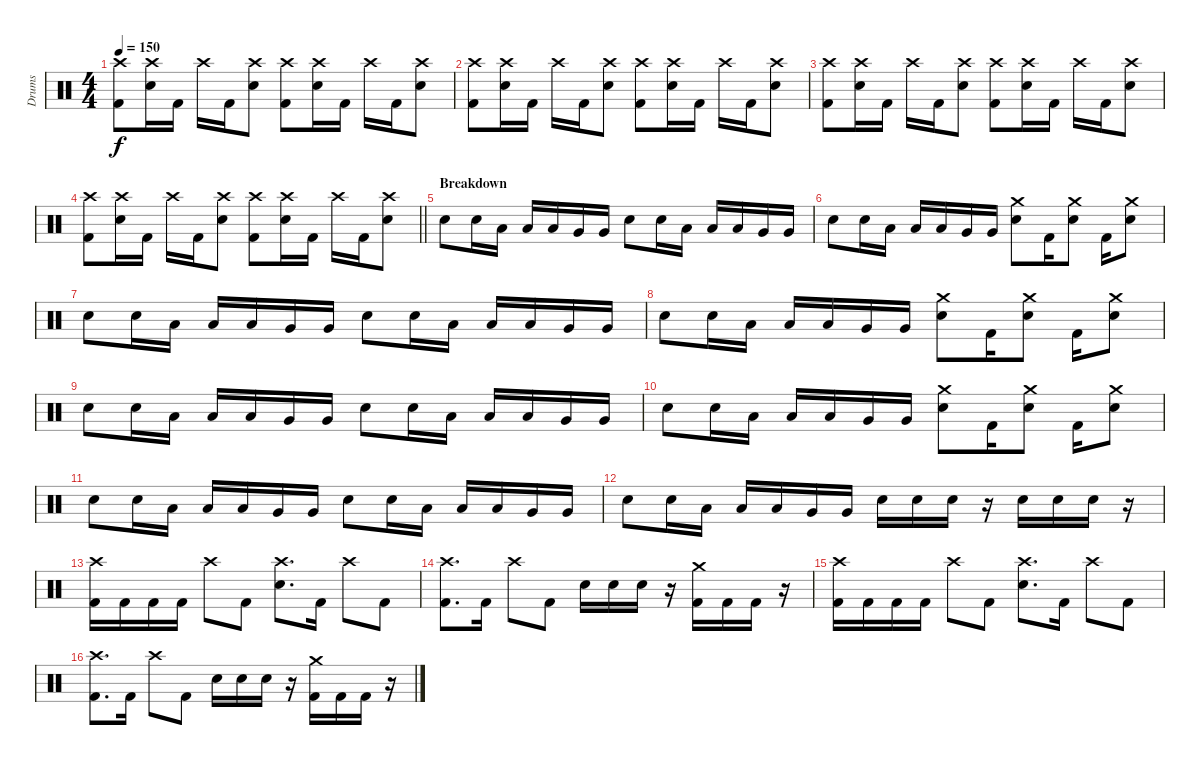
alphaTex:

\track ("Drums" "Drums") {instrument percussion}
\staff {score}
\articulation defaults
\ts (4 4)
\tempo 150
\clef neutral
\ks c
("Crash high (hit)" "Kick (hit) 2").8{dy f} ("Crash high (hit)" "Electric Snare (hit)").16 "Kick (hit) 2".16 "Crash high (hit)".16 "Kick (hit) 2".16 ("Crash high (hit)" "Electric Snare (hit)").8 ("Crash high (hit)" "Kick (hit) 2").8 ("Crash high (hit)" "Electric Snare (hit)").16 "Kick (hit) 2".16 "Crash high (hit)".16 "Kick (hit) 2".16 ("Crash high (hit)" "Electric Snare (hit)").8 |
("Crash high (hit)" "Kick (hit) 2").8 ("Crash high (hit)" "Electric Snare (hit)").16 "Kick (hit) 2".16 "Crash high (hit)".16 "Kick (hit) 2".16 ("Crash high (hit)" "Electric Snare (hit)").8 ("Crash high (hit)" "Kick (hit) 2").8 ("Crash high (hit)" "Electric Snare (hit)").16 "Kick (hit) 2".16 "Crash high (hit)".16 "Kick (hit) 2".16 ("Crash high (hit)" "Electric Snare (hit)").8 |
("Crash high (hit)" "Kick (hit) 2").8 ("Crash high (hit)" "Electric Snare (hit)").16 "Kick (hit) 2".16 "Crash high (hit)".16 "Kick (hit) 2".16 ("Crash high (hit)" "Electric Snare (hit)").8 ("Crash high (hit)" "Kick (hit) 2").8 ("Crash high (hit)" "Electric Snare (hit)").16 "Kick (hit) 2".16 "Crash high (hit)".16 "Kick (hit) 2".16 ("Crash high (hit)" "Electric Snare (hit)").8 |
\barLineRight lightlight
("Crash high (hit)" "Kick (hit) 2").8 ("Crash high (hit)" "Electric Snare (hit)").16 "Kick (hit) 2".16 "Crash high (hit)".16 "Kick (hit) 2".16 ("Crash high (hit)" "Electric Snare (hit)").8 ("Crash high (hit)" "Kick (hit) 2").8 ("Crash high (hit)" "Electric Snare (hit)").16 "Kick (hit) 2".16 "Crash high (hit)".16 "Kick (hit) 2".16 ("Crash high (hit)" "Electric Snare (hit)").8 |
\section ("" "Breakdown")
"Electric Snare (hit)".8 "Electric Snare (hit)".16 "Low Tom (hit)".16 "Low Tom (hit)".16 "Low Tom (hit)".16 "Very Low Tom (hit)".16 "Very Low Tom (hit)".16 "Electric Snare (hit)".8 "Electric Snare (hit)".16 "Low Tom (hit)".16 "Low Tom (hit)".16 "Low Tom (hit)".16 "Very Low Tom (hit)".16 "Very Low Tom (hit)".16 |
"Electric Snare (hit)".8 "Electric Snare (hit)".16 "Low Tom (hit)".16 "Low Tom (hit)".16 "Low Tom (hit)".16 "Very Low Tom (hit)".16 "Very Low Tom (hit)".16 ("Crash medium (hit)" "Electric Snare (hit)").8 "Kick (hit) 2".16 ("Crash medium (hit)" "Electric Snare (hit)").8 "Kick (hit) 2".16 ("Crash medium (hit)" "Electric Snare (hit)").8 |
"Electric Snare (hit)".8 "Electric Snare (hit)".16 "Low Tom (hit)".16 "Low Tom (hit)".16 "Low Tom (hit)".16 "Very Low Tom (hit)".16 "Very Low Tom (hit)".16 "Electric Snare (hit)".8 "Electric Snare (hit)".16 "Low Tom (hit)".16 "Low Tom (hit)".16 "Low Tom (hit)".16 "Very Low Tom (hit)".16 "Very Low Tom (hit)".16 |
"Electric Snare (hit)".8 "Electric Snare (hit)".16 "Low Tom (hit)".16 "Low Tom (hit)".16 "Low Tom (hit)".16 "Very Low Tom (hit)".16 "Very Low Tom (hit)".16 ("Crash medium (hit)" "Electric Snare (hit)").8 "Kick (hit) 2".16 ("Crash medium (hit)" "Electric Snare (hit)").8 "Kick (hit) 2".16 ("Crash medium (hit)" "Electric Snare (hit)").8 |
"Electric Snare (hit)".8 "Electric Snare (hit)".16 "Low Tom (hit)".16 "Low Tom (hit)".16 "Low Tom (hit)".16 "Very Low Tom (hit)".16 "Very Low Tom (hit)".16 "Electric Snare (hit)".8 "Electric Snare (hit)".16 "Low Tom (hit)".16 "Low Tom (hit)".16 "Low Tom (hit)".16 "Very Low Tom (hit)".16 "Very Low Tom (hit)".16 |
"Electric Snare (hit)".8 "Electric Snare (hit)".16 "Low Tom (hit)".16 "Low Tom (hit)".16 "Low Tom (hit)".16 "Very Low Tom (hit)".16 "Very Low Tom (hit)".16 ("Crash medium (hit)" "Electric Snare (hit)").8 "Kick (hit) 2".16 ("Crash medium (hit)" "Electric Snare (hit)").8 "Kick (hit) 2".16 ("Crash medium (hit)" "Electric Snare (hit)").8 |
"Electric Snare (hit)".8 "Electric Snare (hit)".16 "Low Tom (hit)".16 "Low Tom (hit)".16 "Low Tom (hit)".16 "Very Low Tom (hit)".16 "Very Low Tom (hit)".16 "Electric Snare (hit)".8 "Electric Snare (hit)".16 "Low Tom (hit)".16 "Low Tom (hit)".16 "Low Tom (hit)".16 "Very Low Tom (hit)".16 "Very Low Tom (hit)".16 |
"Electric Snare (hit)".8 "Electric Snare (hit)".16 "Low Tom (hit)".16 "Low Tom (hit)".16 "Low Tom (hit)".16 "Very Low Tom (hit)".16 "Very Low Tom (hit)".16 "Electric Snare (hit)".16 "Electric Snare (hit)".16 "Electric Snare (hit)".16 r.16 "Electric Snare (hit)".16 "Electric Snare (hit)".16 "Electric Snare (hit)".16 r.16 |
("Crash high (hit)" "Kick (hit) 2").16 "Kick (hit) 2".16 "Kick (hit) 2".16 "Kick (hit) 2".16 "Crash high (hit)".8 "Kick (hit) 2".8 ("Crash high (hit)" "Electric Snare (hit)").8{d} "Kick (hit) 2".16 "Crash high (hit)".8 "Kick (hit) 2".8 |
("Crash high (hit)" "Kick (hit) 2").8{d} "Kick (hit) 2".16 "Crash high (hit)".8 "Kick (hit) 2".8 "Electric Snare (hit)".16 "Electric Snare (hit)".16 "Electric Snare (hit)".16 r.16 ("Crash medium (hit)" "Kick (hit) 2").16 "Kick (hit) 2".16 "Kick (hit) 2".16 r.16 |
("Crash high (hit)" "Kick (hit) 2").16 "Kick (hit) 2".16 "Kick (hit) 2".16 "Kick (hit) 2".16 "Crash high (hit)".8 "Kick (hit) 2".8 ("Crash high (hit)" "Electric Snare (hit)").8{d} "Kick (hit) 2".16 "Crash high (hit)".8 "Kick (hit) 2".8 |
("Crash high (hit)" "Kick (hit) 2").8{d} "Kick (hit) 2".16 "Crash high (hit)".8 "Kick (hit) 2".8 "Electric Snare (hit)".16 "Electric Snare (hit)".16 "Electric Snare (hit)".16 r.16 ("Crash medium (hit)" "Kick (hit) 2").16 "Kick (hit) 2".16 "Kick (hit) 2".16 r.16
